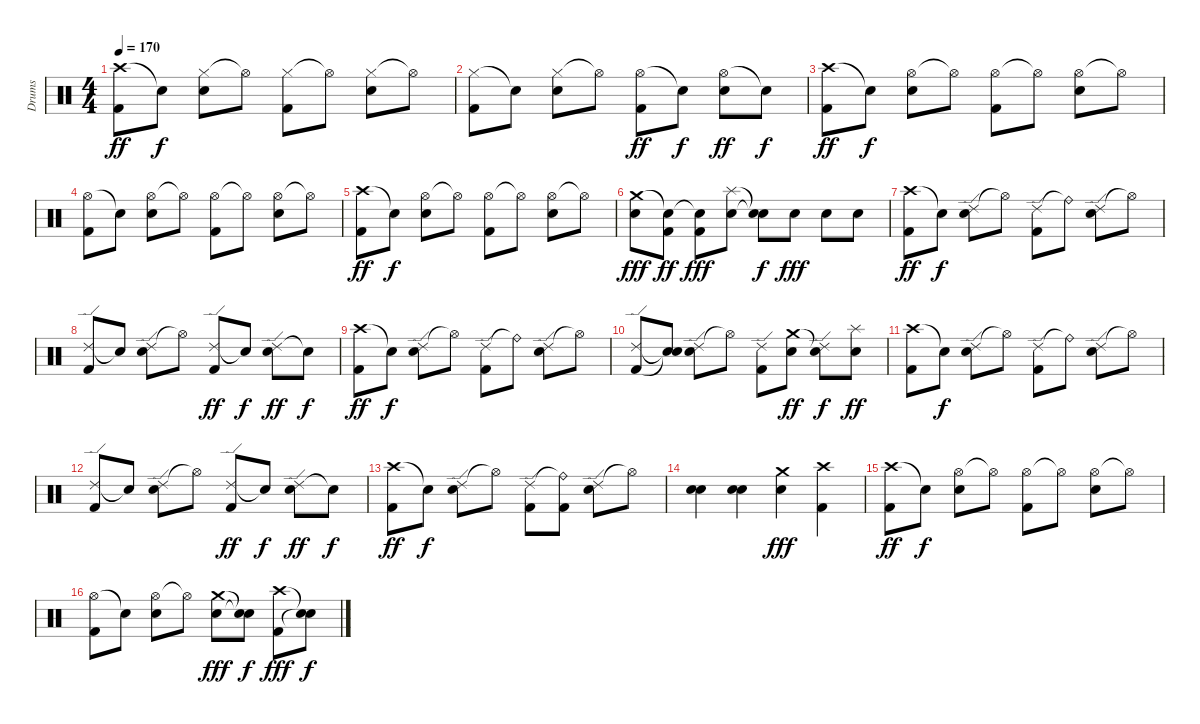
\track ("Drums" "Drums") {instrument percussion}
\staff {score}
\articulation defaults
\ts (4 4)
\tempo 170
\clef neutral
\ks c
("Crash high (hit)" "Kick (hit) 2").8{dy ff} "Snare (hit)"{t}.8{dy f} ("Hi-Hat (closed)" "Snare (hit) 2").8 "Hi-Hat (open)"{t}.8 ("Hi-Hat (closed)" "Kick (hit) 2").8 "Hi-Hat (open)"{t}.8 ("Hi-Hat (closed)" "Snare (hit) 2").8 "Hi-Hat (open)"{t}.8 |
("Hi-Hat (closed)" "Kick (hit) 2").8 "Snare (hit)"{t}.8 ("Hi-Hat (closed)" "Snare (hit) 2").8 "Hi-Hat (open)"{t}.8 ("Hi-Hat (open)" "Kick (hit) 2").8{dy ff} "Snare (hit)"{t}.8{dy f} ("Hi-Hat (open)" "Snare (hit) 2").8{dy ff} "Snare (hit)"{t}.8{dy f} |
("Crash high (hit)" "Kick (hit) 2").8{dy ff} "Snare (hit)"{t}.8{dy f} ("Hi-Hat (open)" "Snare (hit) 2").8 "Hi-Hat (open)"{t}.8 ("Hi-Hat (open)" "Kick (hit) 2").8 "Hi-Hat (open)"{t}.8 ("Hi-Hat (open)" "Snare (hit) 2").8 "Hi-Hat (open)"{t}.8 |
("Hi-Hat (open)" "Kick (hit) 2").8 "Snare (hit)"{t}.8 ("Hi-Hat (open)" "Snare (hit) 2").8 "Hi-Hat (open)"{t}.8 ("Hi-Hat (open)" "Kick (hit) 2").8 "Hi-Hat (open)"{t}.8 ("Hi-Hat (open)" "Snare (hit) 2").8 "Hi-Hat (open)"{t}.8 |
("Crash high (hit)" "Kick (hit) 2").8{dy ff} "Snare (hit)"{t}.8{dy f} ("Hi-Hat (open)" "Snare (hit) 2").8 "Hi-Hat (open)"{t}.8 ("Hi-Hat (open)" "Kick (hit) 2").8 "Hi-Hat (open)"{t}.8 ("Hi-Hat (open)" "Snare (hit) 2").8 "Hi-Hat (open)"{t}.8 |
("Crash medium (hit)" "Snare (hit) 2").8{dy fff} ("Snare (hit)"{t} "Kick (hit) 2").8{dy ff} ("Snare (hit)"{t} "Kick (hit) 2").8{dy fff} ("Splash (hit)" "Snare (hit) 2").8 ("Snare (hit)"{t} "Snare (hit)"{t}).8{dy f} "Snare (hit) 2".8{dy fff} "Snare (hit) 2".8 "Snare (hit) 2".8 |
("Crash high (hit)" "Kick (hit) 2").8{dy ff} "Snare (hit)"{t}.8{dy f} ("Ride (edge) 2" "Snare (hit) 2").8 "Hi-Hat (open)"{t}.8 ("Ride (edge) 2" "Kick (hit) 2").8 "Ride (bell)"{t}.8 ("Ride (edge) 2" "Snare (hit) 2").8 "Hi-Hat (open)"{t}.8 |
("Ride (edge) 2" "Kick (hit) 2").8 "Snare (hit)"{t}.8 ("Ride (edge) 2" "Snare (hit) 2").8 "Hi-Hat (open)"{t}.8 ("Ride (edge) 2" "Kick (hit) 2").8{dy ff} "Snare (hit)"{t}.8{dy f} ("Ride (edge) 2" "Snare (hit) 2").8{dy ff} "Snare (hit)"{t}.8{dy f} |
("Crash high (hit)" "Kick (hit) 2").8{dy ff} "Snare (hit)"{t}.8{dy f} ("Ride (edge) 2" "Snare (hit) 2").8 "Hi-Hat (open)"{t}.8 ("Ride (edge) 2" "Kick (hit) 2").8 "Ride (bell)"{t}.8 ("Ride (edge) 2" "Snare (hit) 2").8 "Hi-Hat (open)"{t}.8 |
("Ride (edge) 2" "Kick (hit) 2").8 ("Snare (hit)"{t} "Snare (hit)"{t}).8 ("Ride (edge) 2" "Snare (hit) 2").8 "Hi-Hat (open)"{t}.8 ("Ride (edge) 2" "Kick (hit) 2").8 ("Crash medium (hit)" "Snare (hit) 2").8{dy ff} ("Snare (hit)"{t} "Ride (edge) 2").8{dy f} ("Splash (hit)" "Snare (hit) 2").8{dy ff} |
("Crash high (hit)" "Kick (hit) 2").8 "Snare (hit)"{t}.8{dy f} ("Ride (edge) 2" "Snare (hit) 2").8 "Hi-Hat (open)"{t}.8 ("Ride (edge) 2" "Kick (hit) 2").8 "Ride (bell)"{t}.8 ("Ride (edge) 2" "Snare (hit) 2").8 "Hi-Hat (open)"{t}.8 |
("Ride (edge) 2" "Kick (hit) 2").8 "Snare (hit)"{t}.8 ("Ride (edge) 2" "Snare (hit) 2").8 "Hi-Hat (open)"{t}.8 ("Ride (edge) 2" "Kick (hit) 2").8{dy ff} "Snare (hit)"{t}.8{dy f} ("Ride (edge) 2" "Snare (hit) 2").8{dy ff} "Snare (hit)"{t}.8{dy f} |
("Crash high (hit)" "Kick (hit) 2").8{dy ff} "Snare (hit)"{t}.8{dy f} ("Ride (edge) 2" "Snare (hit) 2").8 "Hi-Hat (open)"{t}.8 ("Ride (edge) 2" "Kick (hit) 2").8 ("Ride (bell)"{t} "Kick (hit) 2").8 ("Ride (edge) 2" "Snare (hit) 2").8 "Hi-Hat (open)"{t}.8 |
("Snare (hit) 2" "Electric Snare (hit)").4 ("Snare (hit) 2" "Electric Snare (hit)").4 ("Crash medium (hit)" "Snare (hit) 2").4{dy fff} ("Crash high (hit)" "Kick (hit) 2").4 |
("Crash high (hit)" "Kick (hit) 2").8{dy ff} "Snare (hit)"{t}.8{dy f} ("Hi-Hat (open)" "Snare (hit) 2").8 "Hi-Hat (open)"{t}.8 ("Hi-Hat (open)" "Kick (hit) 2").8 "Hi-Hat (open)"{t}.8 ("Hi-Hat (open)" "Snare (hit) 2").8 "Hi-Hat (open)"{t}.8 |
("Hi-Hat (open)" "Kick (hit) 2").8 "Snare (hit)"{t}.8 ("Hi-Hat (open)" "Snare (hit) 2").8 "Hi-Hat (open)"{t}.8 ("Crash medium (hit)" "Snare (hit) 2").8{dy fff} ("Snare (hit)"{t} "Snare (hit)"{t}).8{dy f} ("Crash high (hit)" "Kick (hit) 2").8{dy fff} ("Snare (hit)"{t} "Snare (hit)"{t}).8{dy f}
